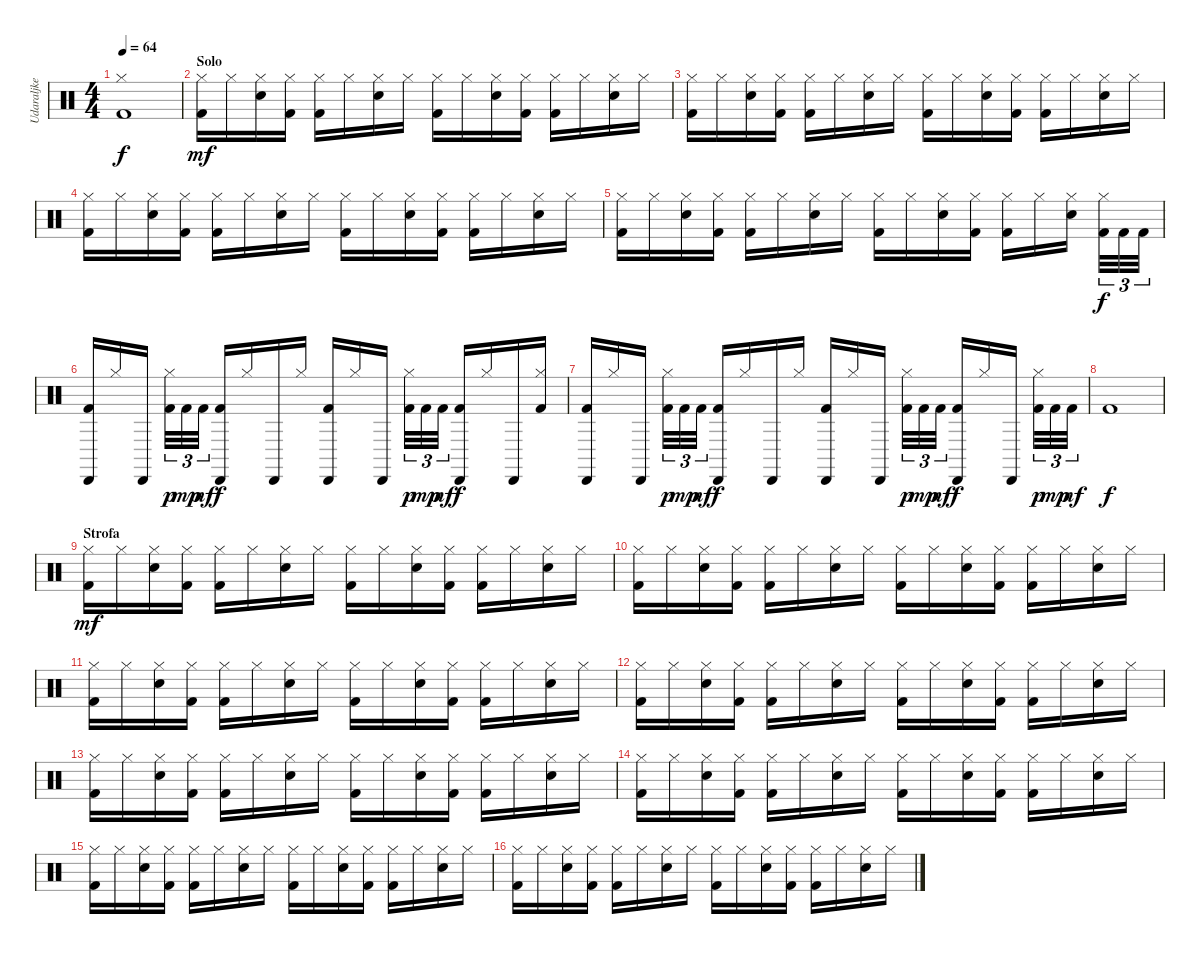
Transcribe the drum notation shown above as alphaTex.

\track ("Udaraljke" "Udaraljke") {instrument percussion}
\staff {score}
\articulation defaults
\ts (4 4)
\tempo 64
\clef neutral
\ks c
("Kick (hit) 2" "Hi-Hat (closed)").1{dy f} |
\section ("" "Solo")
("Kick (hit) 2" "Hi-Hat (closed)").16{dy mf} "Hi-Hat (closed)".16 ("Snare (hit) 2" "Hi-Hat (closed)").16 ("Kick (hit) 2" "Hi-Hat (closed)").16 ("Kick (hit) 2" "Hi-Hat (closed)").16 "Hi-Hat (closed)".16 ("Snare (hit) 2" "Hi-Hat (closed)").16 "Hi-Hat (closed)".16 ("Kick (hit) 2" "Hi-Hat (closed)").16 "Hi-Hat (closed)".16 ("Snare (hit) 2" "Hi-Hat (closed)").16 ("Kick (hit) 2" "Hi-Hat (closed)").16 ("Kick (hit) 2" "Hi-Hat (closed)").16 "Hi-Hat (closed)".16 ("Snare (hit) 2" "Hi-Hat (closed)").16 "Hi-Hat (closed)".16 |
("Kick (hit) 2" "Hi-Hat (closed)").16 "Hi-Hat (closed)".16 ("Snare (hit) 2" "Hi-Hat (closed)").16 ("Kick (hit) 2" "Hi-Hat (closed)").16 ("Kick (hit) 2" "Hi-Hat (closed)").16 "Hi-Hat (closed)".16 ("Snare (hit) 2" "Hi-Hat (closed)").16 "Hi-Hat (closed)".16 ("Kick (hit) 2" "Hi-Hat (closed)").16 "Hi-Hat (closed)".16 ("Snare (hit) 2" "Hi-Hat (closed)").16 ("Kick (hit) 2" "Hi-Hat (closed)").16 ("Kick (hit) 2" "Hi-Hat (closed)").16 "Hi-Hat (closed)".16 ("Snare (hit) 2" "Hi-Hat (closed)").16 "Hi-Hat (closed)".16 |
("Kick (hit) 2" "Hi-Hat (closed)").16 "Hi-Hat (closed)".16 ("Snare (hit) 2" "Hi-Hat (closed)").16 ("Kick (hit) 2" "Hi-Hat (closed)").16 ("Kick (hit) 2" "Hi-Hat (closed)").16 "Hi-Hat (closed)".16 ("Snare (hit) 2" "Hi-Hat (closed)").16 "Hi-Hat (closed)".16 ("Kick (hit) 2" "Hi-Hat (closed)").16 "Hi-Hat (closed)".16 ("Snare (hit) 2" "Hi-Hat (closed)").16 ("Kick (hit) 2" "Hi-Hat (closed)").16 ("Kick (hit) 2" "Hi-Hat (closed)").16 "Hi-Hat (closed)".16 ("Snare (hit) 2" "Hi-Hat (closed)").16 "Hi-Hat (closed)".16 |
("Kick (hit) 2" "Hi-Hat (closed)").16 "Hi-Hat (closed)".16 ("Snare (hit) 2" "Hi-Hat (closed)").16 ("Kick (hit) 2" "Hi-Hat (closed)").16 ("Kick (hit) 2" "Hi-Hat (closed)").16 "Hi-Hat (closed)".16 ("Snare (hit) 2" "Hi-Hat (closed)").16 "Hi-Hat (closed)".16 ("Kick (hit) 2" "Hi-Hat (closed)").16 "Hi-Hat (closed)".16 ("Snare (hit) 2" "Hi-Hat (closed)").16 ("Kick (hit) 2" "Hi-Hat (closed)").16 ("Kick (hit) 2" "Hi-Hat (closed)").16 "Hi-Hat (closed)".16 ("Snare (hit) 2" "Hi-Hat (closed)").16 ("Hi-Hat (closed)" "Kick (hit) 2").32{tu (3 2) dy f} "Kick (hit) 2".32{tu (3 2)} "Kick (hit) 2".32{tu (3 2)} |
("Cabasa (hit)" "Kick (hit) 2").16 "Hi-Hat (closed)".16 "Cabasa (hit)".16 ("Hi-Hat (closed)" "Kick (hit) 2").32{tu (3 2) dy p} "Kick (hit) 2".32{tu (3 2) dy mp} "Kick (hit) 2".32{tu (3 2) dy mf} ("Cabasa (hit)" "Kick (hit) 2").16{dy f} "Hi-Hat (closed)".16 "Cabasa (hit)".16 "Hi-Hat (closed)".16 ("Cabasa (hit)" "Kick (hit) 2").16 "Hi-Hat (closed)".16 "Cabasa (hit)".16 ("Hi-Hat (closed)" "Kick (hit) 2").32{tu (3 2) dy p} "Kick (hit) 2".32{tu (3 2) dy mp} "Kick (hit) 2".32{tu (3 2) dy mf} ("Cabasa (hit)" "Kick (hit) 2").16{dy f} "Hi-Hat (closed)".16 "Cabasa (hit)".16 ("Hi-Hat (closed)" "Kick (hit) 2").16 |
("Cabasa (hit)" "Kick (hit) 2").16 "Hi-Hat (closed)".16 "Cabasa (hit)".16 ("Hi-Hat (closed)" "Kick (hit) 2").32{tu (3 2) dy p} "Kick (hit) 2".32{tu (3 2) dy mp} "Kick (hit) 2".32{tu (3 2) dy mf} ("Cabasa (hit)" "Kick (hit) 2").16{dy f} "Hi-Hat (closed)".16 "Cabasa (hit)".16 "Hi-Hat (closed)".16 ("Cabasa (hit)" "Kick (hit) 2").16 "Hi-Hat (closed)".16 "Cabasa (hit)".16 ("Hi-Hat (closed)" "Kick (hit) 2").32{tu (3 2) dy p} "Kick (hit) 2".32{tu (3 2) dy mp} "Kick (hit) 2".32{tu (3 2) dy mf} ("Cabasa (hit)" "Kick (hit) 2").16{dy f} "Hi-Hat (closed)".16 "Cabasa (hit)".16 ("Hi-Hat (closed)" "Kick (hit) 2").32{tu (3 2) dy p} "Kick (hit) 2".32{tu (3 2) dy mp} "Kick (hit) 2".32{tu (3 2) dy mf} |
"Kick (hit) 2".1{dy f} |
\section ("" "Strofa")
("Kick (hit) 2" "Hi-Hat (closed)").16{dy mf} "Hi-Hat (closed)".16 ("Snare (hit) 2" "Hi-Hat (closed)").16 ("Kick (hit) 2" "Hi-Hat (closed)").16 ("Kick (hit) 2" "Hi-Hat (closed)").16 "Hi-Hat (closed)".16 ("Snare (hit) 2" "Hi-Hat (closed)").16 "Hi-Hat (closed)".16 ("Kick (hit) 2" "Hi-Hat (closed)").16 "Hi-Hat (closed)".16 ("Snare (hit) 2" "Hi-Hat (closed)").16 ("Kick (hit) 2" "Hi-Hat (closed)").16 ("Kick (hit) 2" "Hi-Hat (closed)").16 "Hi-Hat (closed)".16 ("Snare (hit) 2" "Hi-Hat (closed)").16 "Hi-Hat (closed)".16 |
("Kick (hit) 2" "Hi-Hat (closed)").16 "Hi-Hat (closed)".16 ("Snare (hit) 2" "Hi-Hat (closed)").16 ("Kick (hit) 2" "Hi-Hat (closed)").16 ("Kick (hit) 2" "Hi-Hat (closed)").16 "Hi-Hat (closed)".16 ("Snare (hit) 2" "Hi-Hat (closed)").16 "Hi-Hat (closed)".16 ("Kick (hit) 2" "Hi-Hat (closed)").16 "Hi-Hat (closed)".16 ("Snare (hit) 2" "Hi-Hat (closed)").16 ("Kick (hit) 2" "Hi-Hat (closed)").16 ("Kick (hit) 2" "Hi-Hat (closed)").16 "Hi-Hat (closed)".16 ("Snare (hit) 2" "Hi-Hat (closed)").16 "Hi-Hat (closed)".16 |
("Kick (hit) 2" "Hi-Hat (closed)").16 "Hi-Hat (closed)".16 ("Snare (hit) 2" "Hi-Hat (closed)").16 ("Kick (hit) 2" "Hi-Hat (closed)").16 ("Kick (hit) 2" "Hi-Hat (closed)").16 "Hi-Hat (closed)".16 ("Snare (hit) 2" "Hi-Hat (closed)").16 "Hi-Hat (closed)".16 ("Kick (hit) 2" "Hi-Hat (closed)").16 "Hi-Hat (closed)".16 ("Snare (hit) 2" "Hi-Hat (closed)").16 ("Kick (hit) 2" "Hi-Hat (closed)").16 ("Kick (hit) 2" "Hi-Hat (closed)").16 "Hi-Hat (closed)".16 ("Snare (hit) 2" "Hi-Hat (closed)").16 "Hi-Hat (closed)".16 |
("Kick (hit) 2" "Hi-Hat (closed)").16 "Hi-Hat (closed)".16 ("Snare (hit) 2" "Hi-Hat (closed)").16 ("Kick (hit) 2" "Hi-Hat (closed)").16 ("Kick (hit) 2" "Hi-Hat (closed)").16 "Hi-Hat (closed)".16 ("Snare (hit) 2" "Hi-Hat (closed)").16 "Hi-Hat (closed)".16 ("Kick (hit) 2" "Hi-Hat (closed)").16 "Hi-Hat (closed)".16 ("Snare (hit) 2" "Hi-Hat (closed)").16 ("Kick (hit) 2" "Hi-Hat (closed)").16 ("Kick (hit) 2" "Hi-Hat (closed)").16 "Hi-Hat (closed)".16 ("Snare (hit) 2" "Hi-Hat (closed)").16 "Hi-Hat (closed)".16 |
("Kick (hit) 2" "Hi-Hat (closed)").16 "Hi-Hat (closed)".16 ("Snare (hit) 2" "Hi-Hat (closed)").16 ("Kick (hit) 2" "Hi-Hat (closed)").16 ("Kick (hit) 2" "Hi-Hat (closed)").16 "Hi-Hat (closed)".16 ("Snare (hit) 2" "Hi-Hat (closed)").16 "Hi-Hat (closed)".16 ("Kick (hit) 2" "Hi-Hat (closed)").16 "Hi-Hat (closed)".16 ("Snare (hit) 2" "Hi-Hat (closed)").16 ("Kick (hit) 2" "Hi-Hat (closed)").16 ("Kick (hit) 2" "Hi-Hat (closed)").16 "Hi-Hat (closed)".16 ("Snare (hit) 2" "Hi-Hat (closed)").16 "Hi-Hat (closed)".16 |
("Kick (hit) 2" "Hi-Hat (closed)").16 "Hi-Hat (closed)".16 ("Snare (hit) 2" "Hi-Hat (closed)").16 ("Kick (hit) 2" "Hi-Hat (closed)").16 ("Kick (hit) 2" "Hi-Hat (closed)").16 "Hi-Hat (closed)".16 ("Snare (hit) 2" "Hi-Hat (closed)").16 "Hi-Hat (closed)".16 ("Kick (hit) 2" "Hi-Hat (closed)").16 "Hi-Hat (closed)".16 ("Snare (hit) 2" "Hi-Hat (closed)").16 ("Kick (hit) 2" "Hi-Hat (closed)").16 ("Kick (hit) 2" "Hi-Hat (closed)").16 "Hi-Hat (closed)".16 ("Snare (hit) 2" "Hi-Hat (closed)").16 "Hi-Hat (closed)".16 |
("Kick (hit) 2" "Hi-Hat (closed)").16 "Hi-Hat (closed)".16 ("Snare (hit) 2" "Hi-Hat (closed)").16 ("Kick (hit) 2" "Hi-Hat (closed)").16 ("Kick (hit) 2" "Hi-Hat (closed)").16 "Hi-Hat (closed)".16 ("Snare (hit) 2" "Hi-Hat (closed)").16 "Hi-Hat (closed)".16 ("Kick (hit) 2" "Hi-Hat (closed)").16 "Hi-Hat (closed)".16 ("Snare (hit) 2" "Hi-Hat (closed)").16 ("Kick (hit) 2" "Hi-Hat (closed)").16 ("Kick (hit) 2" "Hi-Hat (closed)").16 "Hi-Hat (closed)".16 ("Snare (hit) 2" "Hi-Hat (closed)").16 "Hi-Hat (closed)".16 |
("Kick (hit) 2" "Hi-Hat (closed)").16 "Hi-Hat (closed)".16 ("Snare (hit) 2" "Hi-Hat (closed)").16 ("Kick (hit) 2" "Hi-Hat (closed)").16 ("Kick (hit) 2" "Hi-Hat (closed)").16 "Hi-Hat (closed)".16 ("Snare (hit) 2" "Hi-Hat (closed)").16 "Hi-Hat (closed)".16 ("Kick (hit) 2" "Hi-Hat (closed)").16 "Hi-Hat (closed)".16 ("Snare (hit) 2" "Hi-Hat (closed)").16 ("Kick (hit) 2" "Hi-Hat (closed)").16 ("Kick (hit) 2" "Hi-Hat (closed)").16 "Hi-Hat (closed)".16 ("Snare (hit) 2" "Hi-Hat (closed)").16 "Hi-Hat (closed)".16
